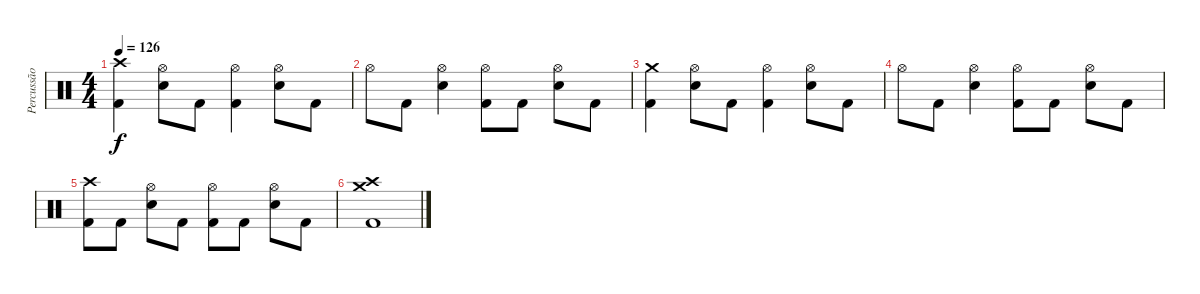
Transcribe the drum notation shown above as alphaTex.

\track ("Percussão" "Percussão") {instrument percussion}
\staff {score}
\articulation defaults
\ts (4 4)
\tempo 126
\clef neutral
\ks c
("Crash high (hit)" "Kick (hit) 2").4{dy f} ("Hi-Hat (open)" "Electric Snare (hit)").8 "Kick (hit) 2".8 ("Hi-Hat (open)" "Kick (hit) 2").4 ("Hi-Hat (open)" "Electric Snare (hit)").8 "Kick (hit) 2".8 |
"Hi-Hat (open)".8 "Kick (hit) 2".8 ("Hi-Hat (open)" "Electric Snare (hit)").4 ("Hi-Hat (open)" "Kick (hit) 2").8 "Kick (hit) 2".8 ("Hi-Hat (open)" "Electric Snare (hit)").8 "Kick (hit) 2".8 |
("Crash medium (hit)" "Kick (hit) 2").4 ("Hi-Hat (open)" "Electric Snare (hit)").8 "Kick (hit) 2".8 ("Hi-Hat (open)" "Kick (hit) 2").4 ("Hi-Hat (open)" "Electric Snare (hit)").8 "Kick (hit) 2".8 |
"Hi-Hat (open)".8 "Kick (hit) 2".8 ("Hi-Hat (open)" "Electric Snare (hit)").4 ("Hi-Hat (open)" "Kick (hit) 2").8 "Kick (hit) 2".8 ("Hi-Hat (open)" "Electric Snare (hit)").8 "Kick (hit) 2".8 |
("Crash high (hit)" "Kick (hit) 2").8 "Kick (hit) 2".8 ("Hi-Hat (open)" "Electric Snare (hit)").8 "Kick (hit) 2".8 ("Hi-Hat (open)" "Kick (hit) 2").8 "Kick (hit) 2".8 ("Hi-Hat (open)" "Electric Snare (hit)").8 "Kick (hit) 2".8 |
("Crash medium (hit)" "Crash high (hit)" "Kick (hit) 2").1{volume 0}
